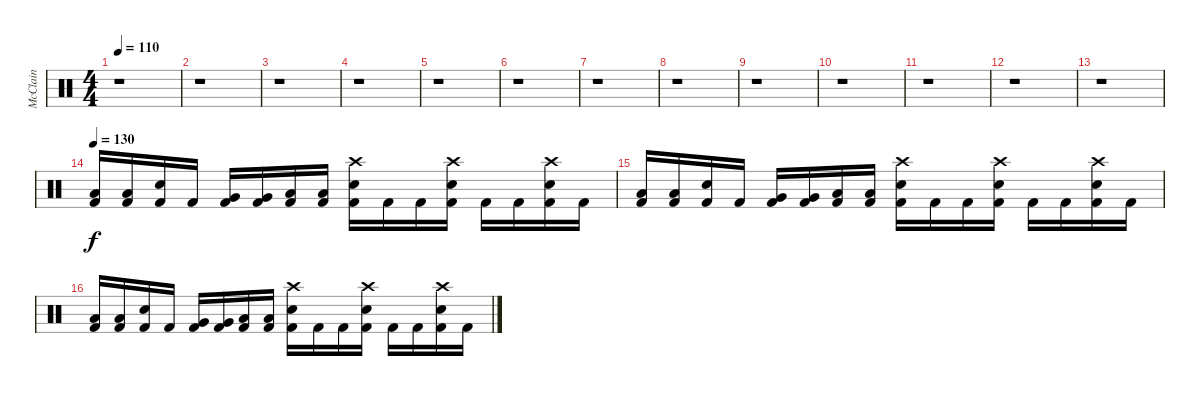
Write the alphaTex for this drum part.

\track ("McClain" "McClain") {instrument percussion}
\staff {score}
\articulation defaults
\ts (4 4)
\tempo 110
\clef neutral
\ks c
r.1{dy f} |
r.1 |
r.1 |
r.1 |
r.1 |
r.1 |
r.1 |
r.1 |
r.1 |
r.1 |
r.1 |
r.1 |
r.1 |
\tempo 130
("Low Tom (hit)" "Kick (hit) 2").16 ("Low Tom (hit)" "Kick (hit) 2").16 ("Electric Snare (hit)" "Kick (hit) 2").16 "Kick (hit) 2".16 ("Very Low Tom (hit)" "Kick (hit) 2").16 ("Very Low Tom (hit)" "Kick (hit) 2").16 ("Low Floor Tom (hit)" "Kick (hit) 2").16 ("Low Floor Tom (hit)" "Kick (hit) 2").16 ("Crash high (hit)" "Electric Snare (hit)" "Kick (hit) 2").16 "Kick (hit) 2".16 "Kick (hit) 2".16 ("Crash high (hit)" "Electric Snare (hit)" "Kick (hit) 2").16 "Kick (hit) 2".16 "Kick (hit) 2".16 ("Crash high (hit)" "Electric Snare (hit)" "Kick (hit) 2").16 "Kick (hit) 2".16 |
("Low Tom (hit)" "Kick (hit) 2").16 ("Low Tom (hit)" "Kick (hit) 2").16 ("Electric Snare (hit)" "Kick (hit) 2").16 "Kick (hit) 2".16 ("Very Low Tom (hit)" "Kick (hit) 2").16 ("Very Low Tom (hit)" "Kick (hit) 2").16 ("Low Floor Tom (hit)" "Kick (hit) 2").16 ("Low Floor Tom (hit)" "Kick (hit) 2").16 ("Crash high (hit)" "Electric Snare (hit)" "Kick (hit) 2").16 "Kick (hit) 2".16 "Kick (hit) 2".16 ("Crash high (hit)" "Electric Snare (hit)" "Kick (hit) 2").16 "Kick (hit) 2".16 "Kick (hit) 2".16 ("Crash high (hit)" "Electric Snare (hit)" "Kick (hit) 2").16 "Kick (hit) 2".16 |
("Low Tom (hit)" "Kick (hit) 2").16 ("Low Tom (hit)" "Kick (hit) 2").16 ("Electric Snare (hit)" "Kick (hit) 2").16 "Kick (hit) 2".16 ("Very Low Tom (hit)" "Kick (hit) 2").16 ("Very Low Tom (hit)" "Kick (hit) 2").16 ("Low Floor Tom (hit)" "Kick (hit) 2").16 ("Low Floor Tom (hit)" "Kick (hit) 2").16 ("Crash high (hit)" "Electric Snare (hit)" "Kick (hit) 2").16 "Kick (hit) 2".16 "Kick (hit) 2".16 ("Crash high (hit)" "Electric Snare (hit)" "Kick (hit) 2").16 "Kick (hit) 2".16 "Kick (hit) 2".16 ("Crash high (hit)" "Electric Snare (hit)" "Kick (hit) 2").16 "Kick (hit) 2".16
